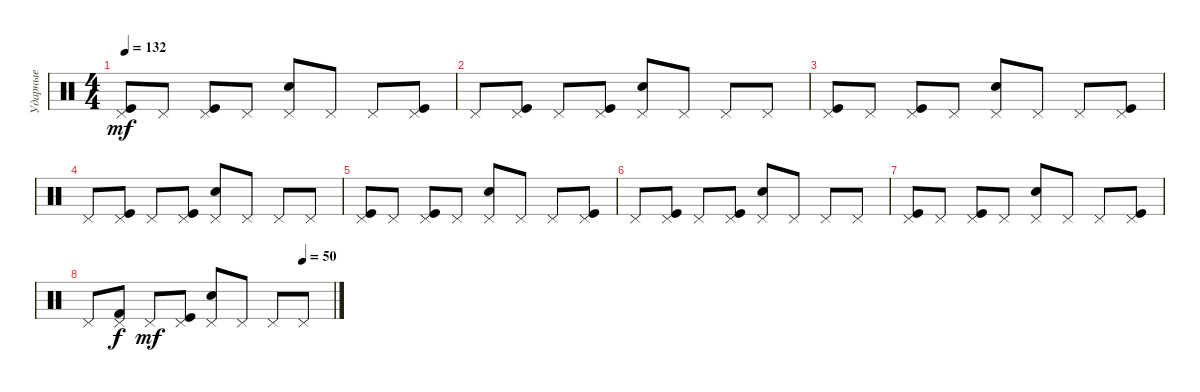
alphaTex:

\track ("Ударные" "Ударные") {instrument percussion}
\staff {score}
\articulation defaults
\ts (4 4)
\tempo 132
\clef neutral
\ks c
("Pedal Hi-Hat (hit)" "Kick (hit)").8{dy mf} "Pedal Hi-Hat (hit)".8 ("Pedal Hi-Hat (hit)" "Kick (hit)").8 "Pedal Hi-Hat (hit)".8 ("Pedal Hi-Hat (hit)" "Snare (hit) 2").8 "Pedal Hi-Hat (hit)".8 "Pedal Hi-Hat (hit)".8 ("Pedal Hi-Hat (hit)" "Kick (hit)").8 |
"Pedal Hi-Hat (hit)".8 ("Pedal Hi-Hat (hit)" "Kick (hit)").8 "Pedal Hi-Hat (hit)".8 ("Pedal Hi-Hat (hit)" "Kick (hit)").8 ("Pedal Hi-Hat (hit)" "Snare (hit) 2").8 "Pedal Hi-Hat (hit)".8 "Pedal Hi-Hat (hit)".8 "Pedal Hi-Hat (hit)".8 |
("Pedal Hi-Hat (hit)" "Kick (hit)").8 "Pedal Hi-Hat (hit)".8 ("Pedal Hi-Hat (hit)" "Kick (hit)").8 "Pedal Hi-Hat (hit)".8 ("Pedal Hi-Hat (hit)" "Snare (hit) 2").8 "Pedal Hi-Hat (hit)".8 "Pedal Hi-Hat (hit)".8 ("Pedal Hi-Hat (hit)" "Kick (hit)").8 |
"Pedal Hi-Hat (hit)".8 ("Pedal Hi-Hat (hit)" "Kick (hit)").8 "Pedal Hi-Hat (hit)".8 ("Pedal Hi-Hat (hit)" "Kick (hit)").8 ("Pedal Hi-Hat (hit)" "Snare (hit) 2").8 "Pedal Hi-Hat (hit)".8 "Pedal Hi-Hat (hit)".8 "Pedal Hi-Hat (hit)".8 |
("Pedal Hi-Hat (hit)" "Kick (hit)").8 "Pedal Hi-Hat (hit)".8 ("Pedal Hi-Hat (hit)" "Kick (hit)").8 "Pedal Hi-Hat (hit)".8 ("Pedal Hi-Hat (hit)" "Snare (hit) 2").8 "Pedal Hi-Hat (hit)".8 "Pedal Hi-Hat (hit)".8 ("Pedal Hi-Hat (hit)" "Kick (hit)").8 |
"Pedal Hi-Hat (hit)".8 ("Pedal Hi-Hat (hit)" "Kick (hit)").8 "Pedal Hi-Hat (hit)".8 ("Pedal Hi-Hat (hit)" "Kick (hit)").8 ("Pedal Hi-Hat (hit)" "Snare (hit) 2").8 "Pedal Hi-Hat (hit)".8 "Pedal Hi-Hat (hit)".8 "Pedal Hi-Hat (hit)".8 |
("Pedal Hi-Hat (hit)" "Kick (hit)").8 "Pedal Hi-Hat (hit)".8 ("Pedal Hi-Hat (hit)" "Kick (hit)").8 "Pedal Hi-Hat (hit)".8 ("Pedal Hi-Hat (hit)" "Snare (hit) 2").8 "Pedal Hi-Hat (hit)".8 "Pedal Hi-Hat (hit)".8 ("Pedal Hi-Hat (hit)" "Kick (hit)").8 |
\tempo (50 0.875)
"Pedal Hi-Hat (hit)".8 ("Pedal Hi-Hat (hit)" "Kick (hit) 2").8{dy f} "Pedal Hi-Hat (hit)".8{dy mf} ("Pedal Hi-Hat (hit)" "Kick (hit)").8 ("Pedal Hi-Hat (hit)" "Snare (hit) 2").8 "Pedal Hi-Hat (hit)".8 "Pedal Hi-Hat (hit)".8 "Pedal Hi-Hat (hit)".8
